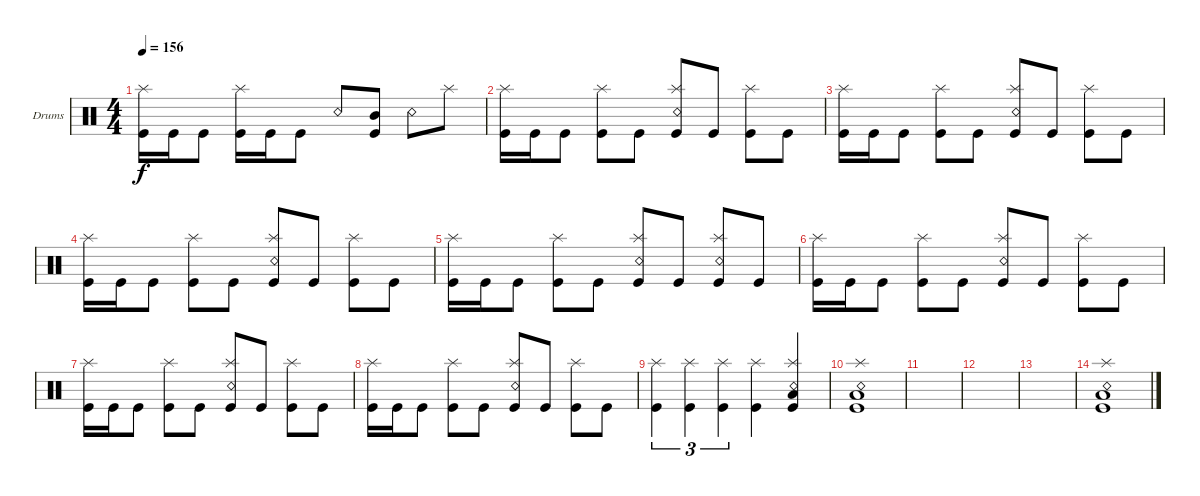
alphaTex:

\defaultSystemsLayout 4
\bracketExtendMode groupsimilarinstruments
\firstSystemTrackNameOrientation horizontal
\otherSystemsTrackNameOrientation horizontal
\track ("Drumkit" "Drums") {instrument percussion}
\staff {score}
\articulation defaults
\ts (4 4)
\tempo 156
\clef neutral
\ks c
("Kick (hit)" "Splash (hit)").16{dy f} "Kick (hit)".16 "Kick (hit)".8 ("Kick (hit)" "Splash (hit)").16 "Kick (hit)".16 "Kick (hit)".8 "Snare (rim shot)".8 ("Kick (hit)" "Mid Tom (hit)").8 "Snare (rim shot)".8 "Splash (hit)".8 |
("Kick (hit)" "Splash (hit)").16 "Kick (hit)".16 "Kick (hit)".8 ("Kick (hit)" "Splash (hit)").8 "Kick (hit)".8 ("Kick (hit)" "Snare (rim shot)" "Splash (hit)").8 "Kick (hit)".8 ("Kick (hit)" "Splash (hit)").8 "Kick (hit)".8 |
("Kick (hit)" "Splash (hit)").16 "Kick (hit)".16 "Kick (hit)".8 ("Kick (hit)" "Splash (hit)").8 "Kick (hit)".8 ("Kick (hit)" "Snare (rim shot)" "Splash (hit)").8 "Kick (hit)".8 ("Kick (hit)" "Splash (hit)").8 "Kick (hit)".8 |
("Kick (hit)" "Splash (hit)").16 "Kick (hit)".16 "Kick (hit)".8 ("Kick (hit)" "Splash (hit)").8 "Kick (hit)".8 ("Kick (hit)" "Snare (rim shot)" "Splash (hit)").8 "Kick (hit)".8 ("Kick (hit)" "Splash (hit)").8 "Kick (hit)".8 |
("Kick (hit)" "Splash (hit)").16 "Kick (hit)".16 "Kick (hit)".8 ("Kick (hit)" "Splash (hit)").8 "Kick (hit)".8 ("Kick (hit)" "Snare (rim shot)" "Splash (hit)").8 "Kick (hit)".8 ("Kick (hit)" "Snare (rim shot)" "Splash (hit)").8 "Kick (hit)".8 |
("Kick (hit)" "Splash (hit)").16 "Kick (hit)".16 "Kick (hit)".8 ("Kick (hit)" "Splash (hit)").8 "Kick (hit)".8 ("Kick (hit)" "Snare (rim shot)" "Splash (hit)").8 "Kick (hit)".8 ("Kick (hit)" "Splash (hit)").8 "Kick (hit)".8 |
("Kick (hit)" "Splash (hit)").16 "Kick (hit)".16 "Kick (hit)".8 ("Kick (hit)" "Splash (hit)").8 "Kick (hit)".8 ("Kick (hit)" "Snare (rim shot)" "Splash (hit)").8 "Kick (hit)".8 ("Kick (hit)" "Splash (hit)").8 "Kick (hit)".8 |
("Kick (hit)" "Splash (hit)").16 "Kick (hit)".16 "Kick (hit)".8 ("Kick (hit)" "Splash (hit)").8 "Kick (hit)".8 ("Kick (hit)" "Snare (rim shot)" "Splash (hit)").8 "Kick (hit)".8 ("Kick (hit)" "Splash (hit)").8 "Kick (hit)".8 |
("Kick (hit)" "Splash (hit)").4{tu (3 2)} ("Kick (hit)" "Splash (hit)").4{tu (3 2)} ("Kick (hit)" "Splash (hit)").4{tu (3 2)} ("Kick (hit)" "Splash (hit)").4 ("Kick (hit)" "Splash (hit)" "Snare (rim shot)" "Low Tom (hit)").4 |
("Kick (hit)" "Splash (hit)" "Snare (rim shot)" "Low Tom (hit)").1 |
|
|
|
("Kick (hit)" "Splash (hit)" "Snare (rim shot)" "Low Tom (hit)").1
